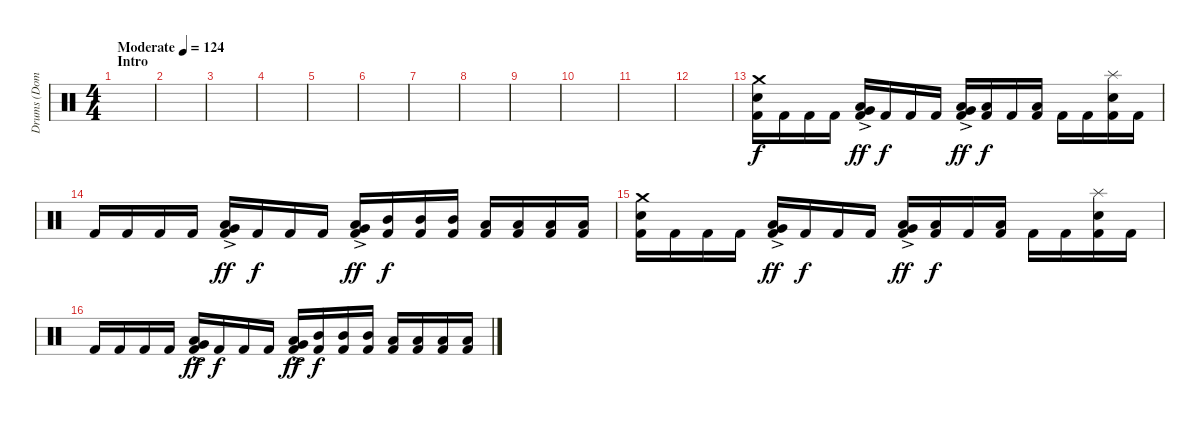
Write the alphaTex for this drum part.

\track ("Drums (Dominik)" "Drums (Dom") {instrument percussion}
\staff {score}
\articulation defaults
\ts (4 4)
\section ("" "Intro")
\tempo (124 "Moderate")
\clef neutral
\ks c
|
|
|
|
|
|
|
|
|
|
|
|
("Crash medium (hit)" "Electric Snare (hit)" "Kick (hit) 2").16 "Kick (hit) 2".16 "Kick (hit) 2".16 "Kick (hit) 2".16 ("Very Low Tom (hit)"{ac} "Low Floor Tom (hit)"{ac} "Kick (hit) 2").16{dy ff} "Kick (hit) 2".16{dy f} "Kick (hit) 2".16 "Kick (hit) 2".16 ("Very Low Tom (hit)"{ac} "Low Floor Tom (hit)"{ac} "Kick (hit) 2").16{dy ff} ("Low Tom (hit)" "Kick (hit) 2").16{dy f} "Kick (hit) 2".16 ("Low Floor Tom (hit)" "Kick (hit) 2").16 "Kick (hit) 2".16 "Kick (hit) 2".16 ("Splash (hit)" "Electric Snare (hit)" "Kick (hit) 2").16 "Kick (hit) 2".16 |
"Kick (hit) 2".16 "Kick (hit) 2".16 "Kick (hit) 2".16 "Kick (hit) 2".16 ("Very Low Tom (hit)"{ac} "Low Floor Tom (hit)"{ac} "Kick (hit) 2").16{dy ff} "Kick (hit) 2".16{dy f} "Kick (hit) 2".16 "Kick (hit) 2".16 ("Very Low Tom (hit)"{ac} "Low Floor Tom (hit)"{ac} "Kick (hit) 2").16{dy ff} ("Mid Tom (hit)" "Kick (hit) 2").16{dy f} ("Mid Tom (hit)" "Kick (hit) 2").16 ("Mid Tom (hit)" "Kick (hit) 2").16 ("Low Tom (hit)" "Kick (hit) 2").16 ("Low Tom (hit)" "Kick (hit) 2").16 ("Low Tom (hit)" "Kick (hit) 2").16 ("Low Tom (hit)" "Kick (hit) 2").16 |
("Crash medium (hit)" "Electric Snare (hit)" "Kick (hit) 2").16 "Kick (hit) 2".16 "Kick (hit) 2".16 "Kick (hit) 2".16 ("Very Low Tom (hit)"{ac} "Low Floor Tom (hit)"{ac} "Kick (hit) 2").16{dy ff} "Kick (hit) 2".16{dy f} "Kick (hit) 2".16 "Kick (hit) 2".16 ("Very Low Tom (hit)"{ac} "Low Floor Tom (hit)"{ac} "Kick (hit) 2").16{dy ff} ("Low Tom (hit)" "Kick (hit) 2").16{dy f} "Kick (hit) 2".16 ("Low Floor Tom (hit)" "Kick (hit) 2").16 "Kick (hit) 2".16 "Kick (hit) 2".16 ("Splash (hit)" "Electric Snare (hit)" "Kick (hit) 2").16 "Kick (hit) 2".16 |
"Kick (hit) 2".16 "Kick (hit) 2".16 "Kick (hit) 2".16 "Kick (hit) 2".16 ("Very Low Tom (hit)"{ac} "Low Floor Tom (hit)"{ac} "Kick (hit) 2").16{dy ff} "Kick (hit) 2".16{dy f} "Kick (hit) 2".16 "Kick (hit) 2".16 ("Very Low Tom (hit)"{ac} "Low Floor Tom (hit)"{ac} "Kick (hit) 2").16{dy ff} ("Mid Tom (hit)" "Kick (hit) 2").16{dy f} ("Mid Tom (hit)" "Kick (hit) 2").16 ("Mid Tom (hit)" "Kick (hit) 2").16 ("Low Tom (hit)" "Kick (hit) 2").16 ("Low Tom (hit)" "Kick (hit) 2").16 ("Low Tom (hit)" "Kick (hit) 2").16 ("Low Tom (hit)" "Kick (hit) 2").16
